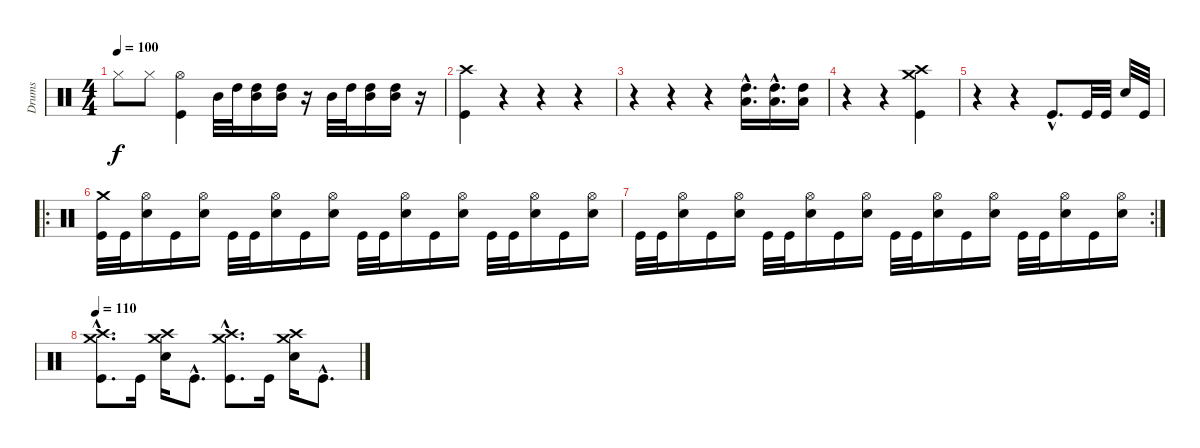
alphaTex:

\track ("Drums" "Drums") {instrument percussion}
\staff {score}
\articulation defaults
\ts (4 4)
\tempo 100
\clef neutral
\ks c "Hi-Hat (closed)".8{dy f} "Hi-Hat (closed)".8
("Hi-Hat (open)" "Kick (hit)").4 "Mid Tom (hit)".32 "High Tom (hit)".32 ("High Tom (hit)" "Mid Tom (hit)").16 ("High Tom (hit)" "Mid Tom (hit)").16 r.16 "Mid Tom (hit)".32 "High Tom (hit)".32 ("High Tom (hit)" "Mid Tom (hit)").16 ("High Tom (hit)" "Mid Tom (hit)").16 r.16 |
("Crash high (hit)" "Kick (hit)").4 r.4 r.4 r.4 |
r.4 r.4 r.4 ("High Tom (hit)"{hac} "Low Floor Tom (hit)"{hac}).16{d} ("High Tom (hit)"{hac} "Low Floor Tom (hit)"{hac}).16{d} ("High Tom (hit)" "Low Floor Tom (hit)").16 |
r.4 r.4 ("Crash medium (hit)" "Crash high (hit)" "Kick (hit)").4 |
r.4 r.4 "Kick (hit)"{hac}.8{d} "Kick (hit)".32 "Kick (hit)".32 "Electric Snare (hit)".32 "Kick (hit)".32 |
\ro
("Crash medium (hit)" "Kick (hit)").32 "Kick (hit)".32 ("Hi-Hat (open)" "Electric Snare (hit)").16 "Kick (hit)".16 ("Hi-Hat (open)" "Electric Snare (hit)").16 "Kick (hit)".32 "Kick (hit)".32 ("Hi-Hat (open)" "Electric Snare (hit)").16 "Kick (hit)".16 ("Hi-Hat (open)" "Electric Snare (hit)").16 "Kick (hit)".32 "Kick (hit)".32 ("Hi-Hat (open)" "Electric Snare (hit)").16 "Kick (hit)".16 ("Hi-Hat (open)" "Electric Snare (hit)").16 "Kick (hit)".32 "Kick (hit)".32 ("Hi-Hat (open)" "Electric Snare (hit)").16 "Kick (hit)".16 ("Hi-Hat (open)" "Electric Snare (hit)").16 |
\rc 2 "Kick (hit)".32 "Kick (hit)".32
("Hi-Hat (open)" "Electric Snare (hit)").16 "Kick (hit)".16 ("Hi-Hat (open)" "Electric Snare (hit)").16 "Kick (hit)".32 "Kick (hit)".32 ("Hi-Hat (open)" "Electric Snare (hit)").16 "Kick (hit)".16 ("Hi-Hat (open)" "Electric Snare (hit)").16 "Kick (hit)".32 "Kick (hit)".32 ("Hi-Hat (open)" "Electric Snare (hit)").16 "Kick (hit)".16 ("Hi-Hat (open)" "Electric Snare (hit)").16 "Kick (hit)".32 "Kick (hit)".32 ("Hi-Hat (open)" "Electric Snare (hit)").16 "Kick (hit)".16 ("Hi-Hat (open)" "Electric Snare (hit)").16 |
\tempo 110
("Crash high (hit)"{hac} "Crash medium (hit)"{hac} "Kick (hit)"{hac}).8{d} "Kick (hit)".16 ("Crash high (hit)" "Crash medium (hit)" "Electric Snare (hit)").16 "Kick (hit)"{hac}.8{d} ("Crash high (hit)"{hac} "Crash medium (hit)"{hac} "Kick (hit)"{hac}).8{d} "Kick (hit)".16 ("Crash high (hit)" "Crash medium (hit)" "Electric Snare (hit)").16 "Kick (hit)"{hac}.8{d}
